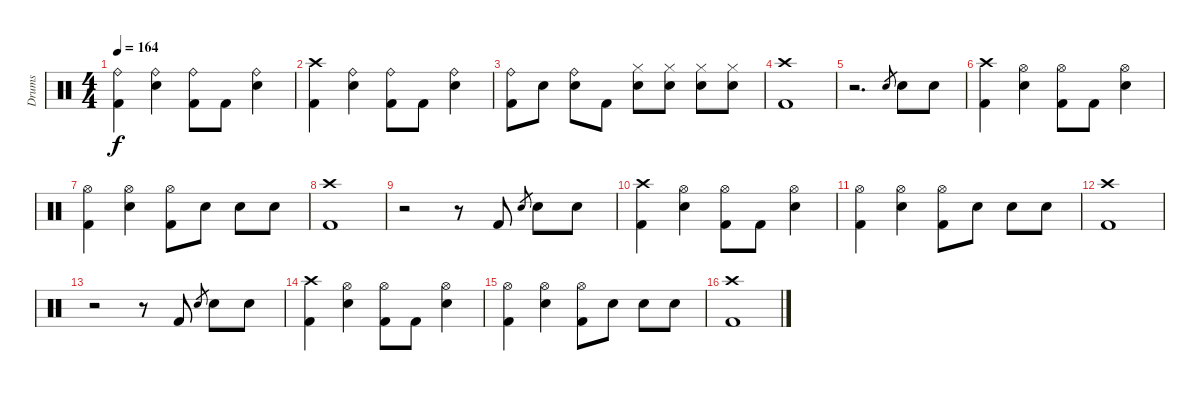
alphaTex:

\track ("Drums" "Drums") {instrument percussion}
\staff {score}
\articulation defaults
\ts (4 4)
\tempo 164
\clef neutral
\ks c
("Kick (hit) 2" "Ride (bell)").4{dy f} ("Snare (hit) 2" "Ride (bell)").4 ("Kick (hit) 2" "Ride (bell)").8 "Kick (hit) 2".8 ("Snare (hit) 2" "Ride (bell)").4 |
("Kick (hit) 2" "Crash high (hit)").4 ("Snare (hit) 2" "Ride (bell)").4 ("Kick (hit) 2" "Ride (bell)").8 "Kick (hit) 2".8 ("Snare (hit) 2" "Ride (bell)").4 |
("Kick (hit) 2" "Ride (bell)").8 "Snare (hit) 2".8 ("Snare (hit) 2" "Ride (bell)").8 "Kick (hit) 2".8 ("Snare (hit) 2" "Hi-Hat (closed)").8 ("Snare (hit) 2" "Hi-Hat (closed)").8 ("Snare (hit) 2" "Hi-Hat (closed)").8 ("Snare (hit) 2" "Hi-Hat (closed)").8 |
("Kick (hit) 2" "Crash high (hit)").1 |
r.2{d} "Snare (hit) 2".8{gr} "Snare (hit) 2".8 "Snare (hit) 2".8 |
("Kick (hit) 2" "Crash high (hit)").4 ("Snare (hit) 2" "Hi-Hat (open)").4 ("Kick (hit) 2" "Hi-Hat (open)").8 "Kick (hit) 2".8 ("Snare (hit) 2" "Hi-Hat (open)").4 |
("Kick (hit) 2" "Hi-Hat (open)").4 ("Snare (hit) 2" "Hi-Hat (open)").4 ("Kick (hit) 2" "Hi-Hat (open)").8 "Snare (hit) 2".8 "Snare (hit) 2".8 "Snare (hit) 2".8 |
("Kick (hit) 2" "Crash high (hit)").1 |
r.2 r.8 "Kick (hit) 2".8 "Snare (hit) 2".8{gr} "Snare (hit) 2".8 "Snare (hit) 2".8 |
("Kick (hit) 2" "Crash high (hit)").4 ("Snare (hit) 2" "Hi-Hat (open)").4 ("Kick (hit) 2" "Hi-Hat (open)").8 "Kick (hit) 2".8 ("Snare (hit) 2" "Hi-Hat (open)").4 |
("Kick (hit) 2" "Hi-Hat (open)").4 ("Snare (hit) 2" "Hi-Hat (open)").4 ("Kick (hit) 2" "Hi-Hat (open)").8 "Snare (hit) 2".8 "Snare (hit) 2".8 "Snare (hit) 2".8 |
("Kick (hit) 2" "Crash high (hit)").1 |
r.2 r.8 "Kick (hit) 2".8 "Snare (hit) 2".8{gr} "Snare (hit) 2".8 "Snare (hit) 2".8 |
("Kick (hit) 2" "Crash high (hit)").4 ("Snare (hit) 2" "Hi-Hat (open)").4 ("Kick (hit) 2" "Hi-Hat (open)").8 "Kick (hit) 2".8 ("Snare (hit) 2" "Hi-Hat (open)").4 |
("Kick (hit) 2" "Hi-Hat (open)").4 ("Snare (hit) 2" "Hi-Hat (open)").4 ("Kick (hit) 2" "Hi-Hat (open)").8 "Snare (hit) 2".8 "Snare (hit) 2".8 "Snare (hit) 2".8 |
("Kick (hit) 2" "Crash high (hit)").1
